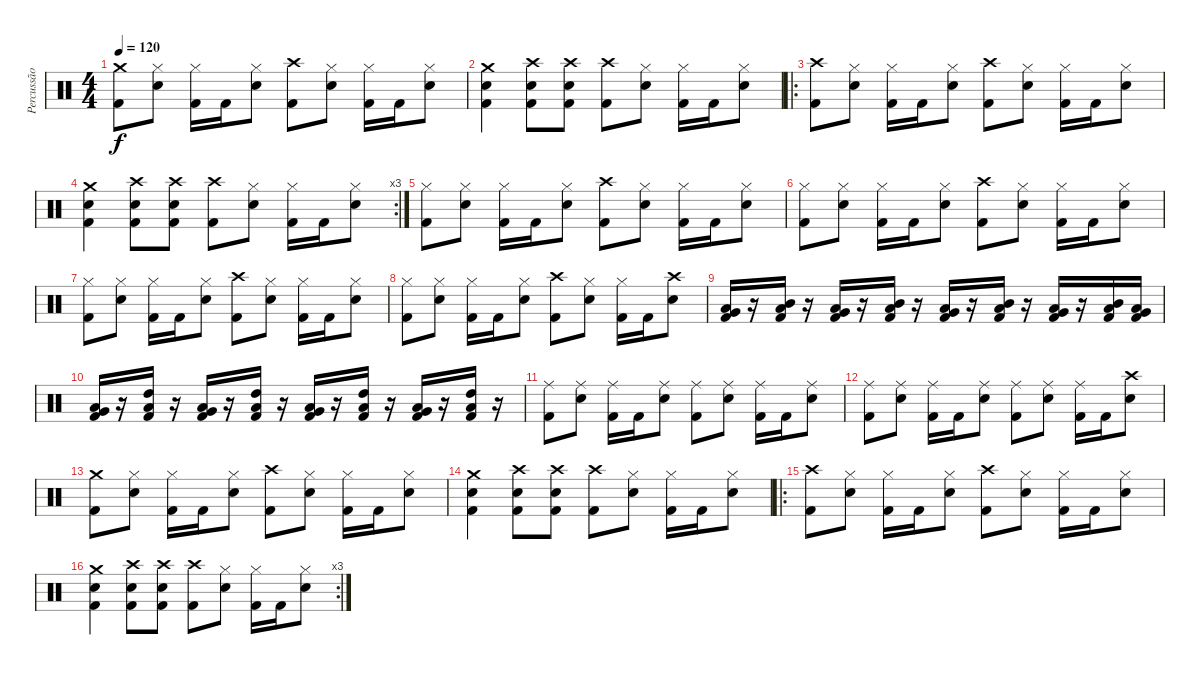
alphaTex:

\track ("Percussão" "Percussão") {instrument percussion}
\staff {score}
\articulation defaults
\ts (4 4)
\tempo 120
\clef neutral
\ks c
("Crash medium (hit)" "Kick (hit) 2").8{dy f} ("Hi-Hat (closed)" "Snare (hit) 2").8 ("Hi-Hat (closed)" "Kick (hit) 2").16 "Kick (hit) 2".16 ("Hi-Hat (closed)" "Snare (hit) 2").8 ("Crash high (hit)" "Kick (hit) 2").8 ("Hi-Hat (closed)" "Snare (hit) 2").8 ("Hi-Hat (closed)" "Kick (hit) 2").16 "Kick (hit) 2".16 ("Hi-Hat (closed)" "Snare (hit) 2").8 |
("Crash medium (hit)" "Snare (hit) 2" "Kick (hit) 2").4 ("Crash high (hit)" "Snare (hit) 2" "Kick (hit) 2").8 ("Crash high (hit)" "Snare (hit) 2" "Kick (hit) 2").8 ("Crash high (hit)" "Kick (hit) 2").8 ("Hi-Hat (closed)" "Snare (hit) 2").8 ("Hi-Hat (closed)" "Kick (hit) 2").16 "Kick (hit) 2".16 ("Hi-Hat (closed)" "Snare (hit) 2").8 |
\ro
("Crash high (hit)" "Kick (hit) 2").8 ("Hi-Hat (closed)" "Snare (hit) 2").8 ("Hi-Hat (closed)" "Kick (hit) 2").16 "Kick (hit) 2".16 ("Hi-Hat (closed)" "Snare (hit) 2").8 ("Crash high (hit)" "Kick (hit) 2").8 ("Hi-Hat (closed)" "Snare (hit) 2").8 ("Hi-Hat (closed)" "Kick (hit) 2").16 "Kick (hit) 2".16 ("Hi-Hat (closed)" "Snare (hit) 2").8 |
\rc 3
("Crash medium (hit)" "Snare (hit) 2" "Kick (hit) 2").4 ("Crash high (hit)" "Snare (hit) 2" "Kick (hit) 2").8 ("Crash high (hit)" "Snare (hit) 2" "Kick (hit) 2").8 ("Crash high (hit)" "Kick (hit) 2").8 ("Hi-Hat (closed)" "Snare (hit) 2").8 ("Hi-Hat (closed)" "Kick (hit) 2").16 "Kick (hit) 2".16 ("Hi-Hat (closed)" "Snare (hit) 2").8 |
("Hi-Hat (closed)" "Kick (hit) 2").8 ("Hi-Hat (closed)" "Snare (hit) 2").8 ("Hi-Hat (closed)" "Kick (hit) 2").16 "Kick (hit) 2".16 ("Hi-Hat (closed)" "Snare (hit) 2").8 ("Crash high (hit)" "Kick (hit) 2").8 ("Hi-Hat (closed)" "Snare (hit) 2").8 ("Hi-Hat (closed)" "Kick (hit) 2").16 "Kick (hit) 2".16 ("Hi-Hat (closed)" "Snare (hit) 2").8 |
("Hi-Hat (closed)" "Kick (hit) 2").8 ("Hi-Hat (closed)" "Snare (hit) 2").8 ("Hi-Hat (closed)" "Kick (hit) 2").16 "Kick (hit) 2".16 ("Hi-Hat (closed)" "Snare (hit) 2").8 ("Crash high (hit)" "Kick (hit) 2").8 ("Hi-Hat (closed)" "Snare (hit) 2").8 ("Hi-Hat (closed)" "Kick (hit) 2").16 "Kick (hit) 2".16 ("Hi-Hat (closed)" "Snare (hit) 2").8 |
("Hi-Hat (closed)" "Kick (hit) 2").8 ("Hi-Hat (closed)" "Snare (hit) 2").8 ("Hi-Hat (closed)" "Kick (hit) 2").16 "Kick (hit) 2".16 ("Hi-Hat (closed)" "Snare (hit) 2").8 ("Crash high (hit)" "Kick (hit) 2").8 ("Hi-Hat (closed)" "Snare (hit) 2").8 ("Hi-Hat (closed)" "Kick (hit) 2").16 "Kick (hit) 2".16 ("Hi-Hat (closed)" "Snare (hit) 2").8 |
("Hi-Hat (closed)" "Kick (hit) 2").8 ("Hi-Hat (closed)" "Snare (hit) 2").8 ("Hi-Hat (closed)" "Kick (hit) 2").16 "Kick (hit) 2".16 ("Hi-Hat (closed)" "Snare (hit) 2").8 ("Crash high (hit)" "Kick (hit) 2").8 ("Hi-Hat (closed)" "Snare (hit) 2").8 ("Hi-Hat (closed)" "Kick (hit) 2").16 "Kick (hit) 2".16 ("Crash high (hit)" "Snare (hit) 2").8 |
("Low Tom (hit)" "Very Low Tom (hit)" "Kick (hit) 2").16 r.16 ("Mid Tom (hit)" "Low Tom (hit)" "Kick (hit) 2").16 r.16 ("Low Tom (hit)" "Very Low Tom (hit)" "Kick (hit) 2").16 r.16 ("Mid Tom (hit)" "Low Tom (hit)" "Kick (hit) 2").16 r.16 ("Low Tom (hit)" "Very Low Tom (hit)" "Kick (hit) 2").16 r.16 ("Mid Tom (hit)" "Low Tom (hit)" "Kick (hit) 2").16 r.16 ("Low Tom (hit)" "Very Low Tom (hit)" "Kick (hit) 2").16 r.16 ("Mid Tom (hit)" "Low Tom (hit)" "Kick (hit) 2").16 ("Low Tom (hit)" "Very Low Tom (hit)" "Kick (hit) 2").16 |
("Low Tom (hit)" "Very Low Tom (hit)" "Kick (hit) 2").16 r.16 ("High Tom (hit)" "Low Tom (hit)" "Kick (hit) 2").16 r.16 ("Low Tom (hit)" "Very Low Tom (hit)" "Kick (hit) 2").16 r.16 ("High Tom (hit)" "Low Tom (hit)" "Kick (hit) 2").16 r.16 ("Low Tom (hit)" "Very Low Tom (hit)" "Kick (hit) 2").16 r.16 ("High Tom (hit)" "Low Tom (hit)" "Kick (hit) 2").16 r.16 ("Low Tom (hit)" "Very Low Tom (hit)" "Kick (hit) 2").16 r.16 ("High Tom (hit)" "Low Tom (hit)" "Kick (hit) 2").16 r.16 |
("Ride (middle)" "Kick (hit) 2").8 ("Ride (middle)" "Snare (hit) 2").8 ("Ride (middle)" "Kick (hit) 2").16 "Kick (hit) 2".16 ("Ride (middle)" "Snare (hit) 2").8 ("Ride (middle)" "Kick (hit) 2").8 ("Ride (middle)" "Snare (hit) 2").8 ("Ride (middle)" "Kick (hit) 2").16 "Kick (hit) 2".16 ("Ride (middle)" "Snare (hit) 2").8 |
("Ride (middle)" "Kick (hit) 2").8 ("Ride (middle)" "Snare (hit) 2").8 ("Ride (middle)" "Kick (hit) 2").16 "Kick (hit) 2".16 ("Ride (middle)" "Snare (hit) 2").8 ("Ride (middle)" "Kick (hit) 2").8 ("Ride (middle)" "Snare (hit) 2").8 ("Ride (middle)" "Kick (hit) 2").16 "Kick (hit) 2".16 ("Crash high (hit)" "Snare (hit) 2").8 |
("Crash medium (hit)" "Kick (hit) 2").8 ("Hi-Hat (closed)" "Snare (hit) 2").8 ("Hi-Hat (closed)" "Kick (hit) 2").16 "Kick (hit) 2".16 ("Hi-Hat (closed)" "Snare (hit) 2").8 ("Crash high (hit)" "Kick (hit) 2").8 ("Hi-Hat (closed)" "Snare (hit) 2").8 ("Hi-Hat (closed)" "Kick (hit) 2").16 "Kick (hit) 2".16 ("Hi-Hat (closed)" "Snare (hit) 2").8 |
("Crash medium (hit)" "Snare (hit) 2" "Kick (hit) 2").4 ("Crash high (hit)" "Snare (hit) 2" "Kick (hit) 2").8 ("Crash high (hit)" "Snare (hit) 2" "Kick (hit) 2").8 ("Crash high (hit)" "Kick (hit) 2").8 ("Hi-Hat (closed)" "Snare (hit) 2").8 ("Hi-Hat (closed)" "Kick (hit) 2").16 "Kick (hit) 2".16 ("Hi-Hat (closed)" "Snare (hit) 2").8 |
\ro
("Crash high (hit)" "Kick (hit) 2").8 ("Hi-Hat (closed)" "Snare (hit) 2").8 ("Hi-Hat (closed)" "Kick (hit) 2").16 "Kick (hit) 2".16 ("Hi-Hat (closed)" "Snare (hit) 2").8 ("Crash high (hit)" "Kick (hit) 2").8 ("Hi-Hat (closed)" "Snare (hit) 2").8 ("Hi-Hat (closed)" "Kick (hit) 2").16 "Kick (hit) 2".16 ("Hi-Hat (closed)" "Snare (hit) 2").8 |
\rc 3
("Crash medium (hit)" "Snare (hit) 2" "Kick (hit) 2").4 ("Crash high (hit)" "Snare (hit) 2" "Kick (hit) 2").8 ("Crash high (hit)" "Snare (hit) 2" "Kick (hit) 2").8 ("Crash high (hit)" "Kick (hit) 2").8 ("Hi-Hat (closed)" "Snare (hit) 2").8 ("Hi-Hat (closed)" "Kick (hit) 2").16 "Kick (hit) 2".16 ("Hi-Hat (closed)" "Snare (hit) 2").8
